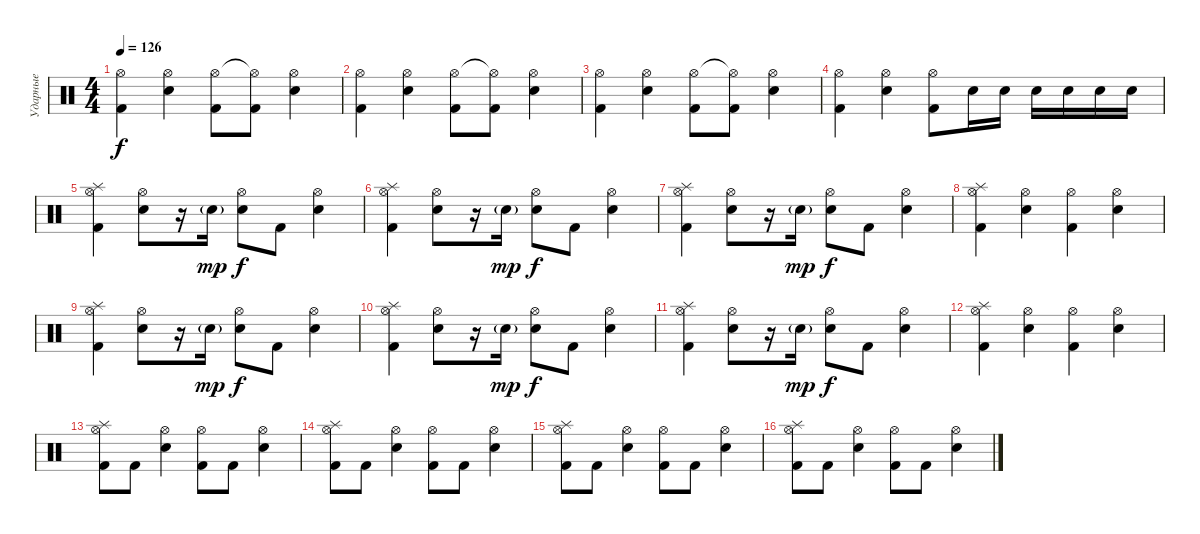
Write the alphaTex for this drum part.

\track ("Ударные" "Ударные") {instrument percussion}
\staff {score}
\articulation defaults
\ts (4 4)
\tempo 126
\clef neutral
\ks c
("Kick (hit) 2" "Hi-Hat (open)").4{dy f} ("Electric Snare (hit)" "Hi-Hat (open)").4 ("Kick (hit) 2" "Hi-Hat (open)").8 ("Kick (hit) 2" "Hi-Hat (open)"{t}).8 ("Electric Snare (hit)" "Hi-Hat (open)").4 |
("Kick (hit) 2" "Hi-Hat (open)").4 ("Electric Snare (hit)" "Hi-Hat (open)").4 ("Kick (hit) 2" "Hi-Hat (open)").8 ("Kick (hit) 2" "Hi-Hat (open)"{t}).8 ("Electric Snare (hit)" "Hi-Hat (open)").4 |
("Kick (hit) 2" "Hi-Hat (open)").4 ("Electric Snare (hit)" "Hi-Hat (open)").4 ("Kick (hit) 2" "Hi-Hat (open)").8 ("Kick (hit) 2" "Hi-Hat (open)"{t}).8 ("Electric Snare (hit)" "Hi-Hat (open)").4 |
("Kick (hit) 2" "Hi-Hat (open)").4 ("Electric Snare (hit)" "Hi-Hat (open)").4 ("Kick (hit) 2" "Hi-Hat (open)").8 "Electric Snare (hit)".16 "Electric Snare (hit)".16 "Electric Snare (hit)".16 "Electric Snare (hit)".16 "Electric Snare (hit)".16 "Electric Snare (hit)".16 |
("Kick (hit) 2" "Hi-Hat (open)" "Splash (hit)").4 ("Electric Snare (hit)" "Hi-Hat (open)").8 r.16 "Electric Snare (hit)"{g}.16{dy mp} ("Electric Snare (hit)" "Hi-Hat (open)").8{dy f} "Kick (hit) 2".8 ("Electric Snare (hit)" "Hi-Hat (open)").4 |
("Kick (hit) 2" "Hi-Hat (open)" "Splash (hit)").4 ("Electric Snare (hit)" "Hi-Hat (open)").8 r.16 "Electric Snare (hit)"{g}.16{dy mp} ("Electric Snare (hit)" "Hi-Hat (open)").8{dy f} "Kick (hit) 2".8 ("Electric Snare (hit)" "Hi-Hat (open)").4 |
("Kick (hit) 2" "Hi-Hat (open)" "Splash (hit)").4 ("Electric Snare (hit)" "Hi-Hat (open)").8 r.16 "Electric Snare (hit)"{g}.16{dy mp} ("Electric Snare (hit)" "Hi-Hat (open)").8{dy f} "Kick (hit) 2".8 ("Electric Snare (hit)" "Hi-Hat (open)").4 |
("Kick (hit) 2" "Hi-Hat (open)" "Splash (hit)").4 ("Electric Snare (hit)" "Hi-Hat (open)").4 ("Kick (hit) 2" "Hi-Hat (open)").4 ("Electric Snare (hit)" "Hi-Hat (open)").4 |
("Kick (hit) 2" "Hi-Hat (open)" "Splash (hit)").4 ("Electric Snare (hit)" "Hi-Hat (open)").8 r.16 "Electric Snare (hit)"{g}.16{dy mp} ("Electric Snare (hit)" "Hi-Hat (open)").8{dy f} "Kick (hit) 2".8 ("Electric Snare (hit)" "Hi-Hat (open)").4 |
("Kick (hit) 2" "Hi-Hat (open)" "Splash (hit)").4 ("Electric Snare (hit)" "Hi-Hat (open)").8 r.16 "Electric Snare (hit)"{g}.16{dy mp} ("Electric Snare (hit)" "Hi-Hat (open)").8{dy f} "Kick (hit) 2".8 ("Electric Snare (hit)" "Hi-Hat (open)").4 |
("Kick (hit) 2" "Hi-Hat (open)" "Splash (hit)").4 ("Electric Snare (hit)" "Hi-Hat (open)").8 r.16 "Electric Snare (hit)"{g}.16{dy mp} ("Electric Snare (hit)" "Hi-Hat (open)").8{dy f} "Kick (hit) 2".8 ("Electric Snare (hit)" "Hi-Hat (open)").4 |
("Kick (hit) 2" "Hi-Hat (open)" "Splash (hit)").4 ("Electric Snare (hit)" "Hi-Hat (open)").4 ("Kick (hit) 2" "Hi-Hat (open)").4 ("Electric Snare (hit)" "Hi-Hat (open)").4 |
("Kick (hit) 2" "Hi-Hat (open)" "Splash (hit)").8 "Kick (hit) 2".8 ("Electric Snare (hit)" "Hi-Hat (open)").4 ("Kick (hit) 2" "Hi-Hat (open)").8 "Kick (hit) 2".8 ("Electric Snare (hit)" "Hi-Hat (open)").4 |
("Kick (hit) 2" "Hi-Hat (open)" "Splash (hit)").8 "Kick (hit) 2".8 ("Electric Snare (hit)" "Hi-Hat (open)").4 ("Kick (hit) 2" "Hi-Hat (open)").8 "Kick (hit) 2".8 ("Electric Snare (hit)" "Hi-Hat (open)").4 |
("Kick (hit) 2" "Hi-Hat (open)" "Splash (hit)").8 "Kick (hit) 2".8 ("Electric Snare (hit)" "Hi-Hat (open)").4 ("Kick (hit) 2" "Hi-Hat (open)").8 "Kick (hit) 2".8 ("Electric Snare (hit)" "Hi-Hat (open)").4 |
("Kick (hit) 2" "Hi-Hat (open)" "Splash (hit)").8 "Kick (hit) 2".8 ("Electric Snare (hit)" "Hi-Hat (open)").4 ("Kick (hit) 2" "Hi-Hat (open)").8 "Kick (hit) 2".8 ("Electric Snare (hit)" "Hi-Hat (open)").4
